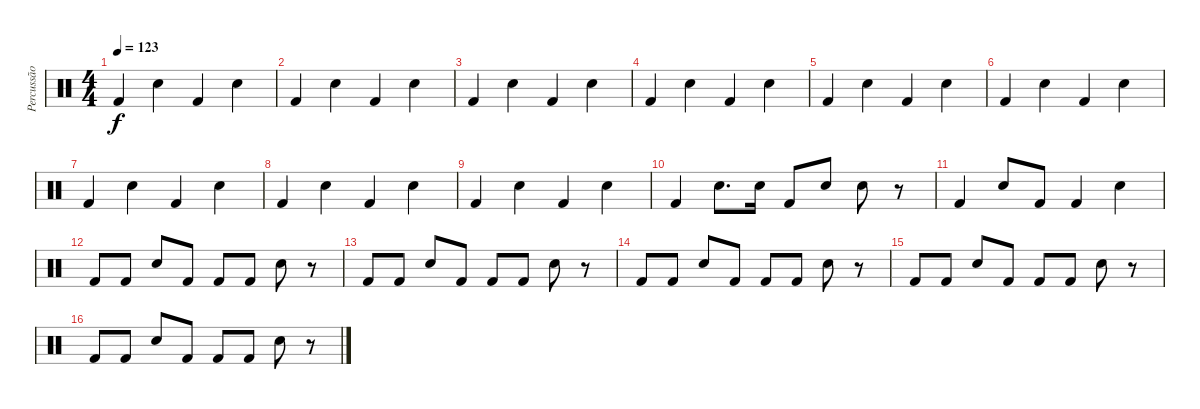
\track ("Percussão" "Percussão") {instrument percussion}
\staff {score}
\articulation defaults
\ts (4 4)
\tempo 123
\clef neutral
\ks c "Kick (hit) 2".4{dy f} "Snare (hit) 2".4 "Kick (hit) 2".4 "Snare (hit) 2".4
|
"Kick (hit) 2".4 "Snare (hit) 2".4 "Kick (hit) 2".4 "Snare (hit) 2".4 |
"Kick (hit) 2".4 "Snare (hit) 2".4 "Kick (hit) 2".4 "Snare (hit) 2".4 |
"Kick (hit) 2".4 "Snare (hit) 2".4 "Kick (hit) 2".4 "Snare (hit) 2".4 |
"Kick (hit) 2".4 "Snare (hit) 2".4 "Kick (hit) 2".4 "Snare (hit) 2".4 |
"Kick (hit) 2".4 "Snare (hit) 2".4 "Kick (hit) 2".4 "Snare (hit) 2".4 |
"Kick (hit) 2".4 "Snare (hit) 2".4 "Kick (hit) 2".4 "Snare (hit) 2".4 |
"Kick (hit) 2".4 "Snare (hit) 2".4 "Kick (hit) 2".4 "Snare (hit) 2".4 |
"Kick (hit) 2".4 "Snare (hit) 2".4 "Kick (hit) 2".4 "Snare (hit) 2".4 |
"Kick (hit) 2".4 "Snare (hit) 2".8{d} "Snare (hit) 2".16 "Kick (hit) 2".8 "Snare (hit) 2".8 "Snare (hit) 2".8 r.8 |
"Kick (hit) 2".4 "Snare (hit) 2".8 "Kick (hit) 2".8 "Kick (hit) 2".4 "Snare (hit) 2".4 |
"Kick (hit) 2".8 "Kick (hit) 2".8 "Snare (hit) 2".8 "Kick (hit) 2".8 "Kick (hit) 2".8 "Kick (hit) 2".8 "Snare (hit) 2".8 r.8 |
"Kick (hit) 2".8 "Kick (hit) 2".8 "Snare (hit) 2".8 "Kick (hit) 2".8 "Kick (hit) 2".8 "Kick (hit) 2".8 "Snare (hit) 2".8 r.8 |
"Kick (hit) 2".8 "Kick (hit) 2".8 "Snare (hit) 2".8 "Kick (hit) 2".8 "Kick (hit) 2".8 "Kick (hit) 2".8 "Snare (hit) 2".8 r.8 |
"Kick (hit) 2".8 "Kick (hit) 2".8 "Snare (hit) 2".8 "Kick (hit) 2".8 "Kick (hit) 2".8 "Kick (hit) 2".8 "Snare (hit) 2".8 r.8 |
"Kick (hit) 2".8 "Kick (hit) 2".8 "Snare (hit) 2".8 "Kick (hit) 2".8 "Kick (hit) 2".8 "Kick (hit) 2".8 "Snare (hit) 2".8 r.8
